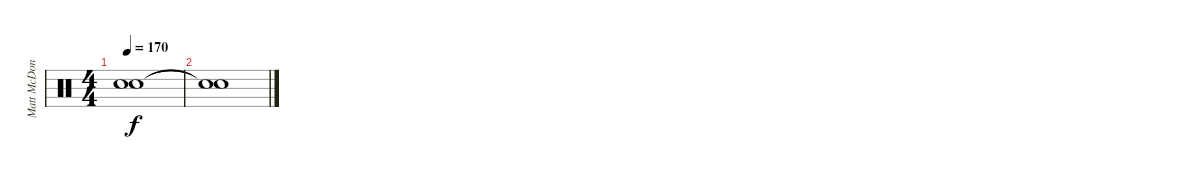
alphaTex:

\track ("Matt McDonough" "Matt McDon") {instrument percussion}
\staff {score}
\articulation defaults
\ts (4 4)
\tempo 170
\clef neutral
\ks c
("Snare (hit)"{t} "Snare (hit)"{t}).1{dy f} |
("Snare (hit)"{t} "Snare (hit)"{t}).1
